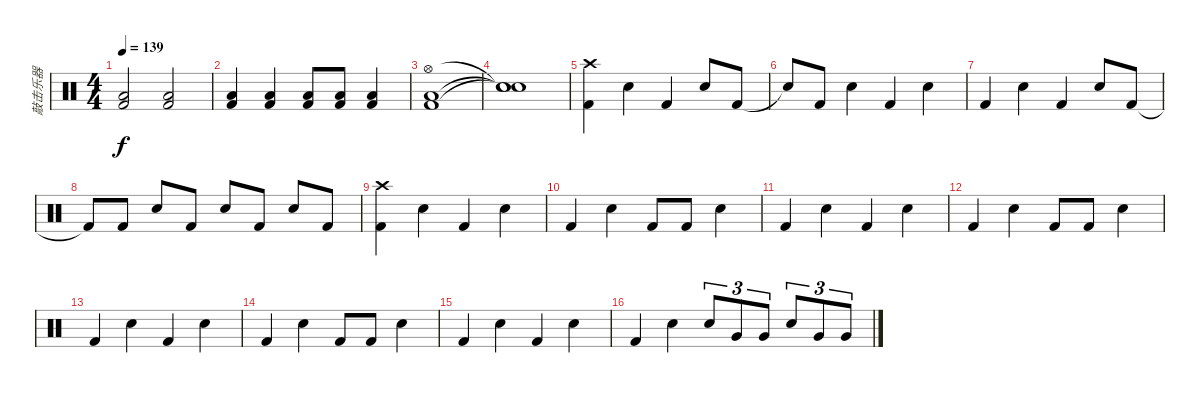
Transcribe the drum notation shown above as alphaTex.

\track ("敲击乐器" "敲击乐器") {instrument percussion}
\staff {score}
\articulation defaults
\ts (4 4)
\tempo 139
\clef neutral
\ks c
("Low Floor Tom (hit)" "Kick (hit) 2").2{dy f} ("Low Floor Tom (hit)" "Kick (hit) 2").2 |
("Low Floor Tom (hit)" "Kick (hit) 2").4 ("Low Floor Tom (hit)" "Kick (hit) 2").4 ("Low Floor Tom (hit)" "Kick (hit) 2").8 ("Low Floor Tom (hit)" "Kick (hit) 2").8 ("Low Floor Tom (hit)" "Kick (hit) 2").4 |
("Hi-Hat (open)" "Low Floor Tom (hit)" "Kick (hit) 2").1 |
("Snare (hit)"{t} "Snare (hit)"{t} "Snare (hit)"{t}).1 |
("Crash high (hit)" "Kick (hit) 2").4 "Snare (hit) 2".4 "Kick (hit) 2".4 "Snare (hit) 2".8 "Kick (hit) 2".8 |
"Snare (hit)"{t}.8 "Kick (hit) 2".8 "Snare (hit) 2".4 "Kick (hit) 2".4 "Snare (hit) 2".4 |
"Kick (hit) 2".4 "Snare (hit) 2".4 "Kick (hit) 2".4 "Snare (hit) 2".8 "Kick (hit) 2".8 |
"Kick (hit) 2"{t}.8 "Kick (hit) 2".8 "Snare (hit) 2".8 "Kick (hit) 2".8 "Snare (hit) 2".8 "Kick (hit) 2".8 "Snare (hit) 2".8 "Kick (hit) 2".8 |
("Crash high (hit)" "Kick (hit) 2").4 "Snare (hit) 2".4 "Kick (hit) 2".4 "Snare (hit) 2".4 |
"Kick (hit) 2".4 "Snare (hit) 2".4 "Kick (hit) 2".8 "Kick (hit) 2".8 "Snare (hit) 2".4 |
"Kick (hit) 2".4 "Snare (hit) 2".4 "Kick (hit) 2".4 "Snare (hit) 2".4 |
"Kick (hit) 2".4 "Snare (hit) 2".4 "Kick (hit) 2".8 "Kick (hit) 2".8 "Snare (hit) 2".4 |
"Kick (hit) 2".4 "Snare (hit) 2".4 "Kick (hit) 2".4 "Snare (hit) 2".4 |
"Kick (hit) 2".4 "Snare (hit) 2".4 "Kick (hit) 2".8 "Kick (hit) 2".8 "Snare (hit) 2".4 |
"Kick (hit) 2".4 "Snare (hit) 2".4 "Kick (hit) 2".4 "Snare (hit) 2".4 |
"Kick (hit) 2".4 "Snare (hit) 2".4 "Snare (hit) 2".8{tu (3 2)} "Very Low Tom (hit)".8{tu (3 2)} "Very Low Tom (hit)".8{tu (3 2)} "Snare (hit) 2".8{tu (3 2)} "Very Low Tom (hit)".8{tu (3 2)} "Very Low Tom (hit)".8{tu (3 2)}
